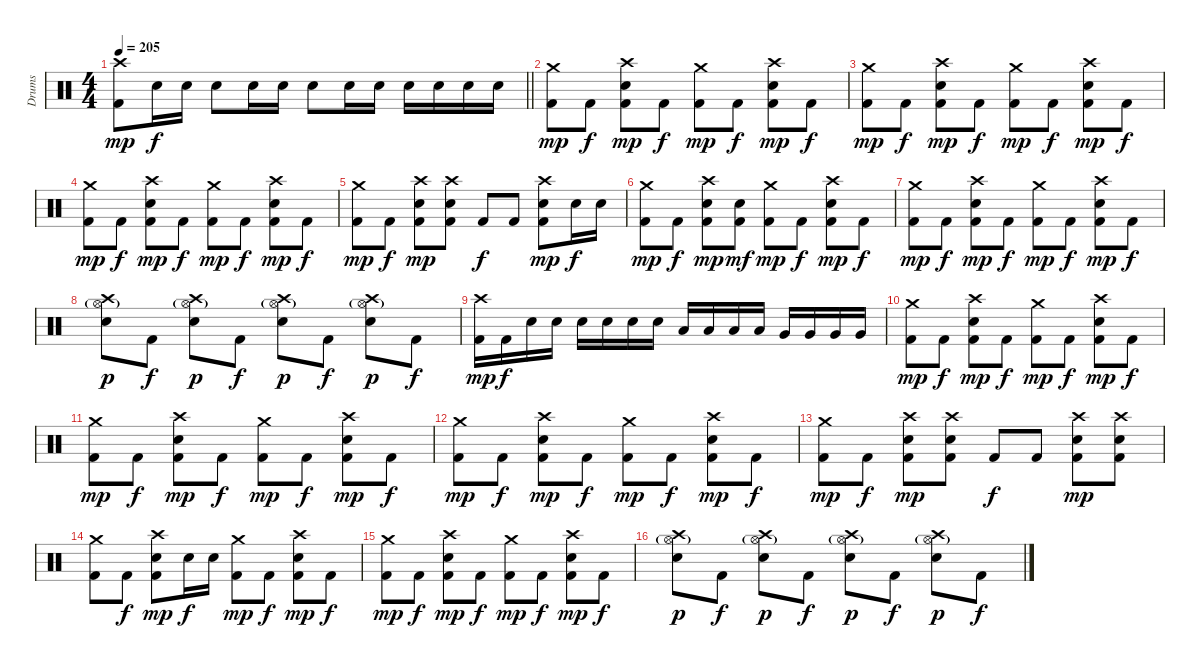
\track ("Drums" "Drums") {instrument percussion}
\staff {score}
\articulation defaults
\ts (4 4)
\tempo 205
\clef neutral
\barLineRight lightlight
\ks c
("Crash high (hit)" "Kick (hit) 2").8{dy mp} "Electric Snare (hit)".16{dy f} "Electric Snare (hit)".16 "Electric Snare (hit)".8 "Electric Snare (hit)".16 "Electric Snare (hit)".16 "Electric Snare (hit)".8 "Electric Snare (hit)".16 "Electric Snare (hit)".16 "Electric Snare (hit)".16 "Electric Snare (hit)".16 "Electric Snare (hit)".16 "Electric Snare (hit)".16 |
("Crash medium (hit)" "Kick (hit) 2").8{dy mp} "Kick (hit) 2".8{dy f} ("Crash high (hit)" "Electric Snare (hit)" "Kick (hit) 2").8{dy mp} "Kick (hit) 2".8{dy f} ("Crash medium (hit)" "Kick (hit) 2").8{dy mp} "Kick (hit) 2".8{dy f} ("Crash high (hit)" "Electric Snare (hit)" "Kick (hit) 2").8{dy mp} "Kick (hit) 2".8{dy f} |
("Crash medium (hit)" "Kick (hit) 2").8{dy mp} "Kick (hit) 2".8{dy f} ("Crash high (hit)" "Electric Snare (hit)" "Kick (hit) 2").8{dy mp} "Kick (hit) 2".8{dy f} ("Crash medium (hit)" "Kick (hit) 2").8{dy mp} "Kick (hit) 2".8{dy f} ("Crash high (hit)" "Electric Snare (hit)" "Kick (hit) 2").8{dy mp} "Kick (hit) 2".8{dy f} |
("Crash medium (hit)" "Kick (hit) 2").8{dy mp} "Kick (hit) 2".8{dy f} ("Crash high (hit)" "Electric Snare (hit)" "Kick (hit) 2").8{dy mp} "Kick (hit) 2".8{dy f} ("Crash medium (hit)" "Kick (hit) 2").8{dy mp} "Kick (hit) 2".8{dy f} ("Crash high (hit)" "Electric Snare (hit)" "Kick (hit) 2").8{dy mp} "Kick (hit) 2".8{dy f} |
("Crash medium (hit)" "Kick (hit) 2").8{dy mp} "Kick (hit) 2".8{dy f} ("Crash high (hit)" "Electric Snare (hit)" "Kick (hit) 2").8{dy mp} ("Crash high (hit)" "Electric Snare (hit)" "Kick (hit) 2").8 "Kick (hit) 2".8{dy f} "Kick (hit) 2".8 ("Crash high (hit)" "Electric Snare (hit)" "Kick (hit) 2").8{dy mp} "Electric Snare (hit)".16{dy f} "Electric Snare (hit)".16 |
("Crash medium (hit)" "Kick (hit) 2").8{dy mp} "Kick (hit) 2".8{dy f} ("Crash high (hit)" "Electric Snare (hit)" "Kick (hit) 2").8{dy mp} ("Electric Snare (hit)" "Kick (hit) 2").8{dy mf} ("Crash medium (hit)" "Kick (hit) 2").8{dy mp} "Kick (hit) 2".8{dy f} ("Crash high (hit)" "Electric Snare (hit)" "Kick (hit) 2").8{dy mp} "Kick (hit) 2".8{dy f} |
("Crash medium (hit)" "Kick (hit) 2").8{dy mp} "Kick (hit) 2".8{dy f} ("Crash high (hit)" "Electric Snare (hit)" "Kick (hit) 2").8{dy mp} "Kick (hit) 2".8{dy f} ("Crash medium (hit)" "Kick (hit) 2").8{dy mp} "Kick (hit) 2".8{dy f} ("Crash high (hit)" "Electric Snare (hit)" "Kick (hit) 2").8{dy mp} "Kick (hit) 2".8{dy f} |
("Crash high (hit)" "Hi-Hat (open)"{g} "Electric Snare (hit)").8{dy p} "Kick (hit) 2".8{dy f} ("Crash high (hit)" "Hi-Hat (open)"{g} "Electric Snare (hit)").8{dy p} "Kick (hit) 2".8{dy f} ("Crash high (hit)" "Hi-Hat (open)"{g} "Electric Snare (hit)").8{dy p} "Kick (hit) 2".8{dy f} ("Crash high (hit)" "Hi-Hat (open)"{g} "Electric Snare (hit)").8{dy p} "Kick (hit) 2".8{dy f} |
("Crash high (hit)" "Kick (hit) 2").16{dy mp} "Kick (hit) 2".16{dy f} "Electric Snare (hit)".16 "Electric Snare (hit)".16 "Electric Snare (hit)".16 "Electric Snare (hit)".16 "Electric Snare (hit)".16 "Electric Snare (hit)".16 "Low Tom (hit)".16 "Low Tom (hit)".16 "Low Tom (hit)".16 "Low Tom (hit)".16 "Very Low Tom (hit)".16 "Very Low Tom (hit)".16 "Very Low Tom (hit)".16 "Very Low Tom (hit)".16 |
("Crash medium (hit)" "Kick (hit) 2").8{dy mp} "Kick (hit) 2".8{dy f} ("Crash high (hit)" "Electric Snare (hit)" "Kick (hit) 2").8{dy mp} "Kick (hit) 2".8{dy f} ("Crash medium (hit)" "Kick (hit) 2").8{dy mp} "Kick (hit) 2".8{dy f} ("Crash high (hit)" "Electric Snare (hit)" "Kick (hit) 2").8{dy mp} "Kick (hit) 2".8{dy f} |
("Crash medium (hit)" "Kick (hit) 2").8{dy mp} "Kick (hit) 2".8{dy f} ("Crash high (hit)" "Electric Snare (hit)" "Kick (hit) 2").8{dy mp} "Kick (hit) 2".8{dy f} ("Crash medium (hit)" "Kick (hit) 2").8{dy mp} "Kick (hit) 2".8{dy f} ("Crash high (hit)" "Electric Snare (hit)" "Kick (hit) 2").8{dy mp} "Kick (hit) 2".8{dy f} |
("Crash medium (hit)" "Kick (hit) 2").8{dy mp} "Kick (hit) 2".8{dy f} ("Crash high (hit)" "Electric Snare (hit)" "Kick (hit) 2").8{dy mp} "Kick (hit) 2".8{dy f} ("Crash medium (hit)" "Kick (hit) 2").8{dy mp} "Kick (hit) 2".8{dy f} ("Crash high (hit)" "Electric Snare (hit)" "Kick (hit) 2").8{dy mp} "Kick (hit) 2".8{dy f} |
("Crash medium (hit)" "Kick (hit) 2").8{dy mp} "Kick (hit) 2".8{dy f} ("Crash high (hit)" "Electric Snare (hit)" "Kick (hit) 2").8{dy mp} ("Crash high (hit)" "Electric Snare (hit)" "Kick (hit) 2").8 "Kick (hit) 2".8{dy f} "Kick (hit) 2".8 ("Crash high (hit)" "Electric Snare (hit)" "Kick (hit) 2").8{dy mp} ("Crash high (hit)" "Electric Snare (hit)" "Kick (hit) 2").8 |
("Crash medium (hit)" "Kick (hit) 2").8 "Kick (hit) 2".8{dy f} ("Crash high (hit)" "Electric Snare (hit)" "Kick (hit) 2").8{dy mp} "Electric Snare (hit)".16{dy f} "Electric Snare (hit)".16 ("Crash medium (hit)" "Kick (hit) 2").8{dy mp} "Kick (hit) 2".8{dy f} ("Crash high (hit)" "Electric Snare (hit)" "Kick (hit) 2").8{dy mp} "Kick (hit) 2".8{dy f} |
("Crash medium (hit)" "Kick (hit) 2").8{dy mp} "Kick (hit) 2".8{dy f} ("Crash high (hit)" "Electric Snare (hit)" "Kick (hit) 2").8{dy mp} "Kick (hit) 2".8{dy f} ("Crash medium (hit)" "Kick (hit) 2").8{dy mp} "Kick (hit) 2".8{dy f} ("Crash high (hit)" "Electric Snare (hit)" "Kick (hit) 2").8{dy mp} "Kick (hit) 2".8{dy f} |
("Crash high (hit)" "Hi-Hat (open)"{g} "Electric Snare (hit)").8{dy p} "Kick (hit) 2".8{dy f} ("Crash high (hit)" "Hi-Hat (open)"{g} "Electric Snare (hit)").8{dy p} "Kick (hit) 2".8{dy f} ("Crash high (hit)" "Hi-Hat (open)"{g} "Electric Snare (hit)").8{dy p} "Kick (hit) 2".8{dy f} ("Crash high (hit)" "Hi-Hat (open)"{g} "Electric Snare (hit)").8{dy p} "Kick (hit) 2".8{dy f}
